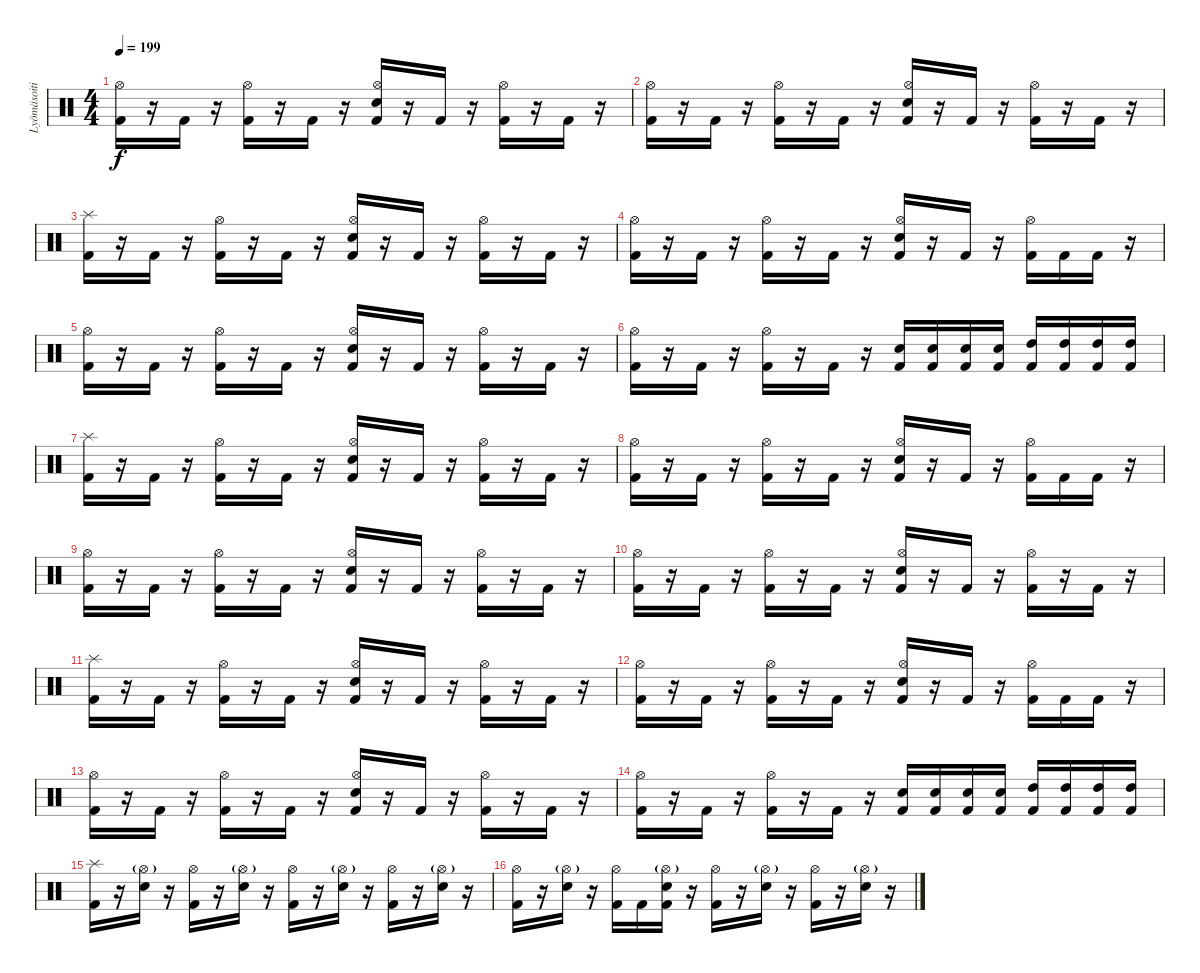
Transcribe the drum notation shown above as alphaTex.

\track ("Lyömäsoitin" "Lyömäsoiti") {instrument percussion}
\staff {score}
\articulation defaults
\ts (4 4)
\tempo 199
\clef neutral
\ks c
("Kick (hit) 2" "Hi-Hat (open)").16{dy f} r.16 "Kick (hit) 2".16 r.16 ("Kick (hit) 2" "Hi-Hat (open)").16 r.16 "Kick (hit) 2".16 r.16 ("Kick (hit) 2" "Hi-Hat (open)" "Snare (hit) 2").16 r.16 "Kick (hit) 2".16 r.16 ("Kick (hit) 2" "Hi-Hat (open)").16 r.16 "Kick (hit) 2".16 r.16 |
("Kick (hit) 2" "Hi-Hat (open)").16 r.16 "Kick (hit) 2".16 r.16 ("Kick (hit) 2" "Hi-Hat (open)").16 r.16 "Kick (hit) 2".16 r.16 ("Kick (hit) 2" "Hi-Hat (open)" "Snare (hit) 2").16 r.16 "Kick (hit) 2".16 r.16 ("Kick (hit) 2" "Hi-Hat (open)").16 r.16 "Kick (hit) 2".16 r.16 |
("Kick (hit) 2" "Splash (hit)").16 r.16 "Kick (hit) 2".16 r.16 ("Kick (hit) 2" "Hi-Hat (open)").16 r.16 "Kick (hit) 2".16 r.16 ("Kick (hit) 2" "Hi-Hat (open)" "Snare (hit) 2").16 r.16 "Kick (hit) 2".16 r.16 ("Kick (hit) 2" "Hi-Hat (open)").16 r.16 "Kick (hit) 2".16 r.16 |
("Kick (hit) 2" "Hi-Hat (open)").16 r.16 "Kick (hit) 2".16 r.16 ("Kick (hit) 2" "Hi-Hat (open)").16 r.16 "Kick (hit) 2".16 r.16 ("Kick (hit) 2" "Hi-Hat (open)" "Snare (hit) 2").16 r.16 "Kick (hit) 2".16 r.16 ("Kick (hit) 2" "Hi-Hat (open)").16 "Kick (hit) 2".16 "Kick (hit) 2".16 r.16 |
("Kick (hit) 2" "Hi-Hat (open)").16 r.16 "Kick (hit) 2".16 r.16 ("Kick (hit) 2" "Hi-Hat (open)").16 r.16 "Kick (hit) 2".16 r.16 ("Kick (hit) 2" "Hi-Hat (open)" "Snare (hit) 2").16 r.16 "Kick (hit) 2".16 r.16 ("Kick (hit) 2" "Hi-Hat (open)").16 r.16 "Kick (hit) 2".16 r.16 |
("Kick (hit) 2" "Hi-Hat (open)").16 r.16 "Kick (hit) 2".16 r.16 ("Kick (hit) 2" "Hi-Hat (open)").16 r.16 "Kick (hit) 2".16 r.16 ("Kick (hit) 2" "Snare (hit) 2").16 ("Kick (hit) 2" "Snare (hit) 2").16 ("Kick (hit) 2" "Snare (hit) 2").16 ("Kick (hit) 2" "Snare (hit) 2").16 ("Kick (hit) 2" "High Tom (hit)").16 ("Kick (hit) 2" "High Tom (hit)").16 ("Kick (hit) 2" "High Tom (hit)").16 ("Kick (hit) 2" "High Tom (hit)").16 |
("Kick (hit) 2" "Splash (hit)").16 r.16 "Kick (hit) 2".16 r.16 ("Kick (hit) 2" "Hi-Hat (open)").16 r.16 "Kick (hit) 2".16 r.16 ("Kick (hit) 2" "Hi-Hat (open)" "Snare (hit) 2").16 r.16 "Kick (hit) 2".16 r.16 ("Kick (hit) 2" "Hi-Hat (open)").16 r.16 "Kick (hit) 2".16 r.16 |
("Kick (hit) 2" "Hi-Hat (open)").16 r.16 "Kick (hit) 2".16 r.16 ("Kick (hit) 2" "Hi-Hat (open)").16 r.16 "Kick (hit) 2".16 r.16 ("Kick (hit) 2" "Hi-Hat (open)" "Snare (hit) 2").16 r.16 "Kick (hit) 2".16 r.16 ("Kick (hit) 2" "Hi-Hat (open)").16 "Kick (hit) 2".16 "Kick (hit) 2".16 r.16 |
("Kick (hit) 2" "Hi-Hat (open)").16 r.16 "Kick (hit) 2".16 r.16 ("Kick (hit) 2" "Hi-Hat (open)").16 r.16 "Kick (hit) 2".16 r.16 ("Kick (hit) 2" "Hi-Hat (open)" "Snare (hit) 2").16 r.16 "Kick (hit) 2".16 r.16 ("Kick (hit) 2" "Hi-Hat (open)").16 r.16 "Kick (hit) 2".16 r.16 |
("Kick (hit) 2" "Hi-Hat (open)").16 r.16 "Kick (hit) 2".16 r.16 ("Kick (hit) 2" "Hi-Hat (open)").16 r.16 "Kick (hit) 2".16 r.16 ("Kick (hit) 2" "Hi-Hat (open)" "Snare (hit) 2").16 r.16 "Kick (hit) 2".16 r.16 ("Kick (hit) 2" "Hi-Hat (open)").16 r.16 "Kick (hit) 2".16 r.16 |
("Kick (hit) 2" "Splash (hit)").16 r.16 "Kick (hit) 2".16 r.16 ("Kick (hit) 2" "Hi-Hat (open)").16 r.16 "Kick (hit) 2".16 r.16 ("Kick (hit) 2" "Hi-Hat (open)" "Snare (hit) 2").16 r.16 "Kick (hit) 2".16 r.16 ("Kick (hit) 2" "Hi-Hat (open)").16 r.16 "Kick (hit) 2".16 r.16 |
("Kick (hit) 2" "Hi-Hat (open)").16 r.16 "Kick (hit) 2".16 r.16 ("Kick (hit) 2" "Hi-Hat (open)").16 r.16 "Kick (hit) 2".16 r.16 ("Kick (hit) 2" "Hi-Hat (open)" "Snare (hit) 2").16 r.16 "Kick (hit) 2".16 r.16 ("Kick (hit) 2" "Hi-Hat (open)").16 "Kick (hit) 2".16 "Kick (hit) 2".16 r.16 |
("Kick (hit) 2" "Hi-Hat (open)").16 r.16 "Kick (hit) 2".16 r.16 ("Kick (hit) 2" "Hi-Hat (open)").16 r.16 "Kick (hit) 2".16 r.16 ("Kick (hit) 2" "Hi-Hat (open)" "Snare (hit) 2").16 r.16 "Kick (hit) 2".16 r.16 ("Kick (hit) 2" "Hi-Hat (open)").16 r.16 "Kick (hit) 2".16 r.16 |
("Kick (hit) 2" "Hi-Hat (open)").16 r.16 "Kick (hit) 2".16 r.16 ("Kick (hit) 2" "Hi-Hat (open)").16 r.16 "Kick (hit) 2".16 r.16 ("Kick (hit) 2" "Snare (hit) 2").16 ("Kick (hit) 2" "Snare (hit) 2").16 ("Kick (hit) 2" "Snare (hit) 2").16 ("Kick (hit) 2" "Snare (hit) 2").16 ("Kick (hit) 2" "High Tom (hit)").16 ("Kick (hit) 2" "High Tom (hit)").16 ("Kick (hit) 2" "High Tom (hit)").16 ("Kick (hit) 2" "High Tom (hit)").16 |
("Kick (hit) 2" "Splash (hit)").16 r.16 ("Hi-Hat (open)"{g} "Snare (hit) 2").16 r.16 ("Kick (hit) 2" "Hi-Hat (open)").16 r.16 ("Hi-Hat (open)"{g} "Snare (hit) 2").16 r.16 ("Kick (hit) 2" "Hi-Hat (open)").16 r.16 ("Hi-Hat (open)"{g} "Snare (hit) 2").16 r.16 ("Kick (hit) 2" "Hi-Hat (open)").16 r.16 ("Hi-Hat (open)"{g} "Snare (hit) 2").16 r.16 |
("Kick (hit) 2" "Hi-Hat (open)").16 r.16 ("Hi-Hat (open)"{g} "Snare (hit) 2").16 r.16 ("Kick (hit) 2" "Hi-Hat (open)").16 "Kick (hit) 2".16 ("Kick (hit) 2" "Hi-Hat (open)"{g} "Snare (hit) 2").16 r.16 ("Kick (hit) 2" "Hi-Hat (open)").16 r.16 ("Hi-Hat (open)"{g} "Snare (hit) 2").16 r.16 ("Kick (hit) 2" "Hi-Hat (open)").16 r.16 ("Hi-Hat (open)"{g} "Snare (hit) 2").16 r.16
